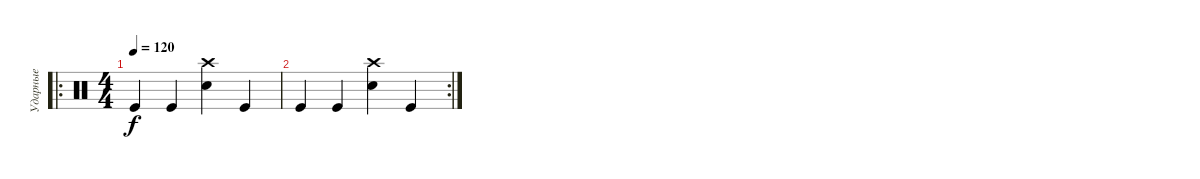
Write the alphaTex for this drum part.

\track ("Ударные" "Ударные") {instrument percussion}
\staff {score}
\articulation defaults
\ro
\ts (4 4)
\tempo 120
\clef neutral
\ks c "Kick (hit)".4{dy f} "Kick (hit)".4
("Crash high (hit)" "Electric Snare (hit)").4 "Kick (hit)".4 |
\rc 2 "Kick (hit)".4 "Kick (hit)".4
("Crash high (hit)" "Electric Snare (hit)").4 "Kick (hit)".4
